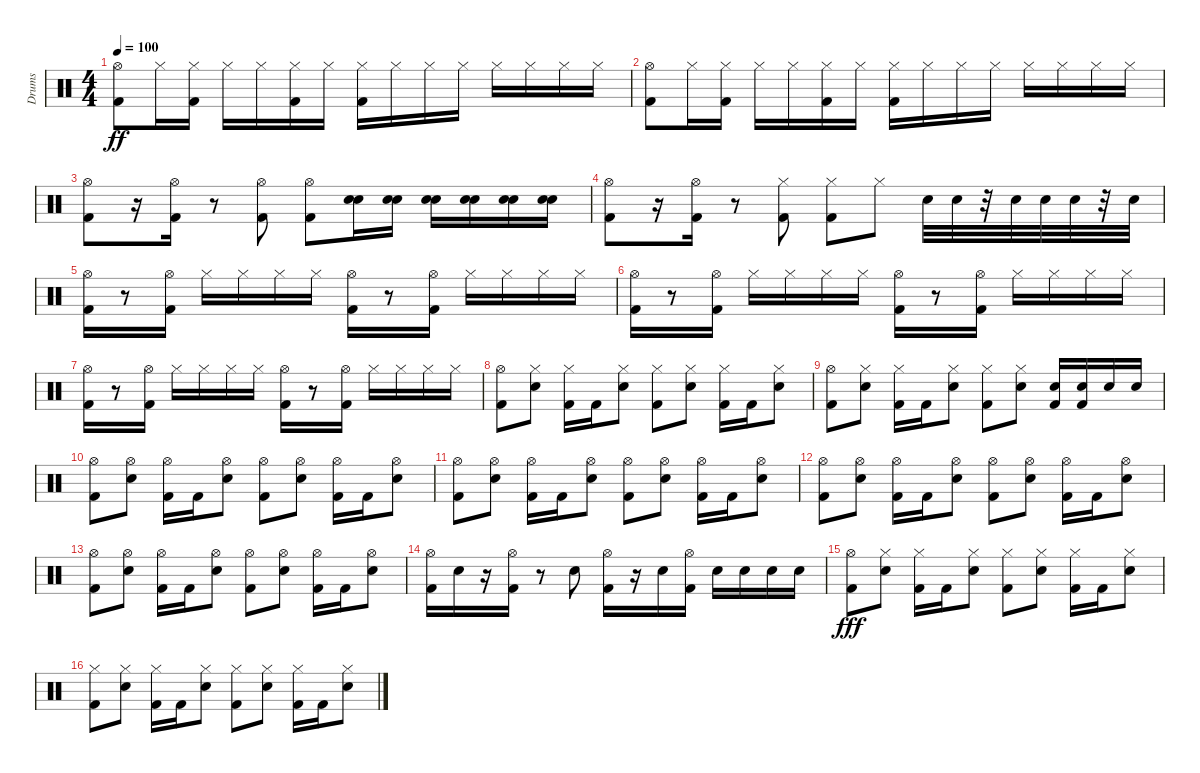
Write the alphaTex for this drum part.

\track ("Drums" "Drums") {instrument percussion}
\staff {score}
\articulation defaults
\ts (4 4)
\tempo 100
\clef neutral
\ks c
("Kick (hit) 2" "Hi-Hat (open)").8{dy ff} "Hi-Hat (closed)".16 ("Kick (hit) 2" "Hi-Hat (closed)").16 "Hi-Hat (closed)".16 "Hi-Hat (closed)".16 ("Kick (hit) 2" "Hi-Hat (closed)").16 "Hi-Hat (closed)".16 ("Kick (hit) 2" "Hi-Hat (closed)").16 "Hi-Hat (closed)".16 "Hi-Hat (closed)".16 "Hi-Hat (closed)".16 "Hi-Hat (closed)".16 "Hi-Hat (closed)".16 "Hi-Hat (closed)".16 "Hi-Hat (closed)".16 |
("Kick (hit) 2" "Hi-Hat (open)").8 "Hi-Hat (closed)".16 ("Kick (hit) 2" "Hi-Hat (closed)").16 "Hi-Hat (closed)".16 "Hi-Hat (closed)".16 ("Kick (hit) 2" "Hi-Hat (closed)").16 "Hi-Hat (closed)".16 ("Kick (hit) 2" "Hi-Hat (closed)").16 "Hi-Hat (closed)".16 "Hi-Hat (closed)".16 "Hi-Hat (closed)".16 "Hi-Hat (closed)".16 "Hi-Hat (closed)".16 "Hi-Hat (closed)".16 "Hi-Hat (closed)".16 |
("Kick (hit) 2" "Hi-Hat (open)").8 r.16 ("Kick (hit) 2" "Hi-Hat (open)").16 r.8 ("Kick (hit) 2" "Hi-Hat (open)").8 ("Kick (hit) 2" "Hi-Hat (open)").8 ("Snare (hit) 2" "Electric Snare (hit)").16 ("Snare (hit) 2" "Electric Snare (hit)").16 ("Snare (hit) 2" "Electric Snare (hit)").16 ("Snare (hit) 2" "Electric Snare (hit)").16 ("Snare (hit) 2" "Electric Snare (hit)").16 ("Snare (hit) 2" "Electric Snare (hit)").16 |
("Kick (hit) 2" "Hi-Hat (open)").8 r.16 ("Kick (hit) 2" "Hi-Hat (open)").16 r.8 ("Kick (hit) 2" "Hi-Hat (closed)").8 ("Kick (hit) 2" "Hi-Hat (closed)").8 "Hi-Hat (closed)".8 "Electric Snare (hit)".32 "Electric Snare (hit)".32 r.32 "Electric Snare (hit)".32 "Electric Snare (hit)".32 "Electric Snare (hit)".32 r.32 "Electric Snare (hit)".32 |
("Kick (hit) 2" "Hi-Hat (open)").16 r.8 ("Kick (hit) 2" "Hi-Hat (open)").16 "Hi-Hat (closed)".16 "Hi-Hat (closed)".16 "Hi-Hat (closed)".16 "Hi-Hat (closed)".16 ("Kick (hit) 2" "Hi-Hat (open)").16 r.8 ("Kick (hit) 2" "Hi-Hat (open)").16 "Hi-Hat (closed)".16 "Hi-Hat (closed)".16 "Hi-Hat (closed)".16 "Hi-Hat (closed)".16 |
("Kick (hit) 2" "Hi-Hat (open)").16 r.8 ("Kick (hit) 2" "Hi-Hat (open)").16 "Hi-Hat (closed)".16 "Hi-Hat (closed)".16 "Hi-Hat (closed)".16 "Hi-Hat (closed)".16 ("Kick (hit) 2" "Hi-Hat (open)").16 r.8 ("Kick (hit) 2" "Hi-Hat (open)").16 "Hi-Hat (closed)".16 "Hi-Hat (closed)".16 "Hi-Hat (closed)".16 "Hi-Hat (closed)".16 |
("Kick (hit) 2" "Hi-Hat (open)").16 r.8 ("Kick (hit) 2" "Hi-Hat (open)").16 "Hi-Hat (closed)".16 "Hi-Hat (closed)".16 "Hi-Hat (closed)".16 "Hi-Hat (closed)".16 ("Kick (hit) 2" "Hi-Hat (open)").16 r.8 ("Kick (hit) 2" "Hi-Hat (open)").16 "Hi-Hat (closed)".16 "Hi-Hat (closed)".16 "Hi-Hat (closed)".16 "Hi-Hat (closed)".16 |
("Kick (hit) 2" "Hi-Hat (open)").8 ("Hi-Hat (closed)" "Electric Snare (hit)").8 ("Hi-Hat (closed)" "Kick (hit) 2").16 "Kick (hit) 2".16 ("Hi-Hat (closed)" "Electric Snare (hit)").8 ("Kick (hit) 2" "Hi-Hat (closed)").8 ("Hi-Hat (closed)" "Electric Snare (hit)").8 ("Kick (hit) 2" "Hi-Hat (closed)").16 "Kick (hit) 2".16 ("Hi-Hat (closed)" "Electric Snare (hit)").8 |
("Kick (hit) 2" "Hi-Hat (open)").8 ("Hi-Hat (closed)" "Electric Snare (hit)").8 ("Hi-Hat (closed)" "Kick (hit) 2").16 "Kick (hit) 2".16 ("Hi-Hat (closed)" "Electric Snare (hit)").8 ("Kick (hit) 2" "Hi-Hat (closed)").8 ("Hi-Hat (closed)" "Electric Snare (hit)").8 ("Kick (hit) 2" "Electric Snare (hit)").16 ("Kick (hit) 2" "Electric Snare (hit)").16 "Electric Snare (hit)".16 "Electric Snare (hit)".16 |
("Kick (hit) 2" "Hi-Hat (open)").8 ("Hi-Hat (open)" "Electric Snare (hit)").8 ("Hi-Hat (open)" "Kick (hit) 2").16 "Kick (hit) 2".16 ("Hi-Hat (open)" "Electric Snare (hit)").8 ("Kick (hit) 2" "Hi-Hat (open)").8 ("Hi-Hat (open)" "Electric Snare (hit)").8 ("Kick (hit) 2" "Hi-Hat (open)").16 "Kick (hit) 2".16 ("Hi-Hat (open)" "Electric Snare (hit)").8 |
("Kick (hit) 2" "Hi-Hat (open)").8 ("Hi-Hat (open)" "Electric Snare (hit)").8 ("Hi-Hat (open)" "Kick (hit) 2").16 "Kick (hit) 2".16 ("Hi-Hat (open)" "Electric Snare (hit)").8 ("Kick (hit) 2" "Hi-Hat (open)").8 ("Hi-Hat (open)" "Electric Snare (hit)").8 ("Kick (hit) 2" "Hi-Hat (open)").16 "Kick (hit) 2".16 ("Hi-Hat (open)" "Electric Snare (hit)").8 |
("Kick (hit) 2" "Hi-Hat (open)").8 ("Hi-Hat (open)" "Electric Snare (hit)").8 ("Hi-Hat (open)" "Kick (hit) 2").16 "Kick (hit) 2".16 ("Hi-Hat (open)" "Electric Snare (hit)").8 ("Kick (hit) 2" "Hi-Hat (open)").8 ("Hi-Hat (open)" "Electric Snare (hit)").8 ("Kick (hit) 2" "Hi-Hat (open)").16 "Kick (hit) 2".16 ("Hi-Hat (open)" "Electric Snare (hit)").8 |
("Kick (hit) 2" "Hi-Hat (open)").8 ("Hi-Hat (open)" "Electric Snare (hit)").8 ("Hi-Hat (open)" "Kick (hit) 2").16 "Kick (hit) 2".16 ("Hi-Hat (open)" "Electric Snare (hit)").8 ("Kick (hit) 2" "Hi-Hat (open)").8 ("Hi-Hat (open)" "Electric Snare (hit)").8 ("Kick (hit) 2" "Hi-Hat (open)").16 "Kick (hit) 2".16 ("Hi-Hat (open)" "Electric Snare (hit)").8 |
("Kick (hit) 2" "Hi-Hat (open)").16 "Electric Snare (hit)".16 r.16 ("Kick (hit) 2" "Hi-Hat (open)").16 r.8 "Electric Snare (hit)".8 ("Kick (hit) 2" "Hi-Hat (open)").16 r.16 "Electric Snare (hit)".16 ("Kick (hit) 2" "Hi-Hat (open)").16 "Electric Snare (hit)".16 "Electric Snare (hit)".16 "Electric Snare (hit)".16 "Electric Snare (hit)".16 |
("Kick (hit) 2" "Hi-Hat (open)").8{dy fff} ("Hi-Hat (closed)" "Electric Snare (hit)").8 ("Hi-Hat (closed)" "Kick (hit) 2").16 "Kick (hit) 2".16 ("Hi-Hat (closed)" "Electric Snare (hit)").8 ("Kick (hit) 2" "Hi-Hat (closed)").8 ("Hi-Hat (closed)" "Electric Snare (hit)").8 ("Kick (hit) 2" "Hi-Hat (closed)").16 "Kick (hit) 2".16 ("Hi-Hat (closed)" "Electric Snare (hit)").8 |
("Kick (hit) 2" "Hi-Hat (closed)").8 ("Hi-Hat (closed)" "Electric Snare (hit)").8 ("Hi-Hat (closed)" "Kick (hit) 2").16 "Kick (hit) 2".16 ("Hi-Hat (closed)" "Electric Snare (hit)").8 ("Kick (hit) 2" "Hi-Hat (closed)").8 ("Hi-Hat (closed)" "Electric Snare (hit)").8 ("Kick (hit) 2" "Hi-Hat (closed)").16 "Kick (hit) 2".16 ("Hi-Hat (closed)" "Electric Snare (hit)").8
